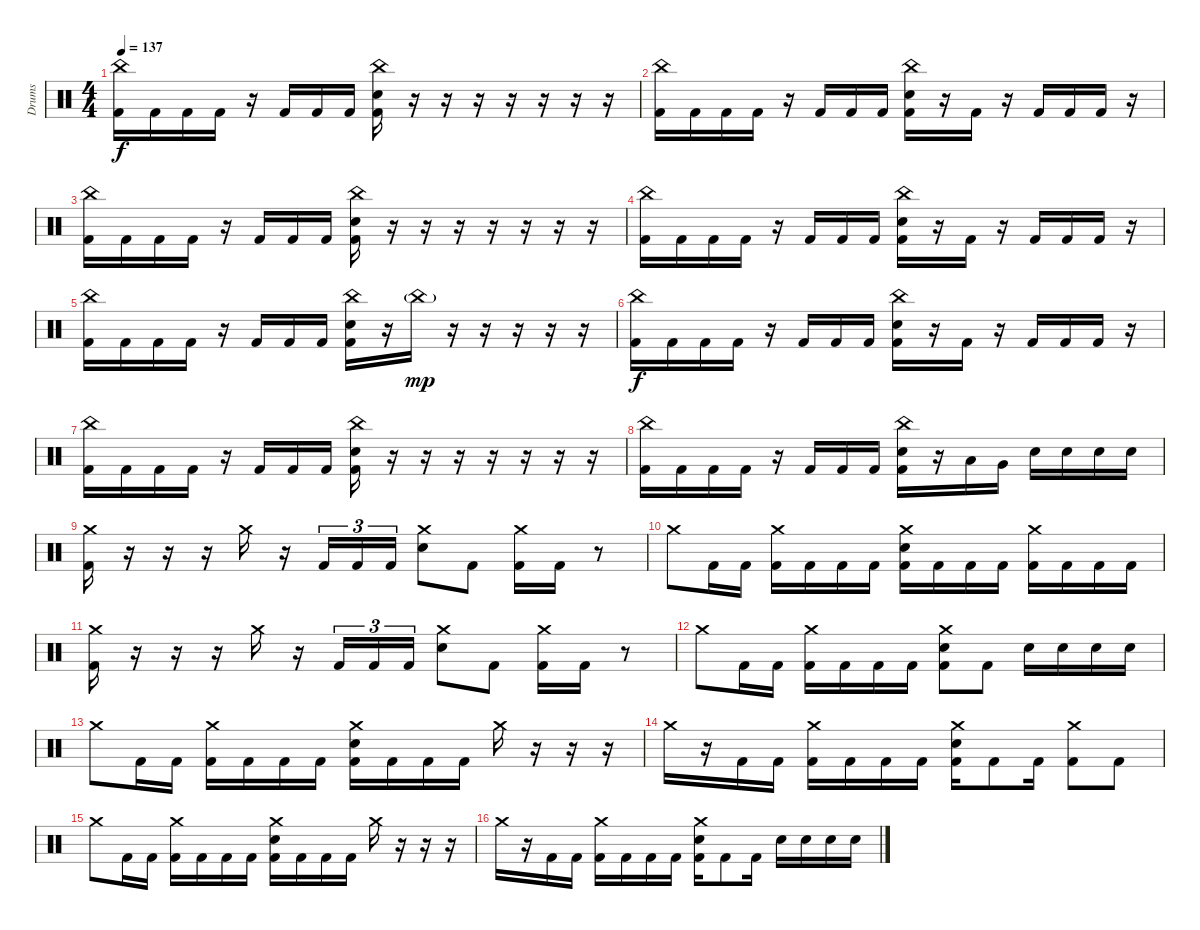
\track ("Drums" "Drums") {instrument percussion}
\staff {score}
\articulation defaults
\ts (4 4)
\tempo 137
\clef neutral
\ks c
("China (hit)" "Kick (hit) 2").16{dy f} "Kick (hit) 2".16 "Kick (hit) 2".16 "Kick (hit) 2".16 r.16 "Kick (hit) 2".16 "Kick (hit) 2".16 "Kick (hit) 2".16 ("China (hit)" "Electric Snare (hit)" "Kick (hit) 2").16 r.16 r.16 r.16 r.16 r.16 r.16 r.16 |
("China (hit)" "Kick (hit) 2").16 "Kick (hit) 2".16 "Kick (hit) 2".16 "Kick (hit) 2".16 r.16 "Kick (hit) 2".16 "Kick (hit) 2".16 "Kick (hit) 2".16 ("China (hit)" "Electric Snare (hit)" "Kick (hit) 2").16 r.16 "Kick (hit) 2".16 r.16 "Kick (hit) 2".16 "Kick (hit) 2".16 "Kick (hit) 2".16 r.16 |
("China (hit)" "Kick (hit) 2").16 "Kick (hit) 2".16 "Kick (hit) 2".16 "Kick (hit) 2".16 r.16 "Kick (hit) 2".16 "Kick (hit) 2".16 "Kick (hit) 2".16 ("China (hit)" "Electric Snare (hit)" "Kick (hit) 2").16 r.16 r.16 r.16 r.16 r.16 r.16 r.16 |
("China (hit)" "Kick (hit) 2").16 "Kick (hit) 2".16 "Kick (hit) 2".16 "Kick (hit) 2".16 r.16 "Kick (hit) 2".16 "Kick (hit) 2".16 "Kick (hit) 2".16 ("China (hit)" "Electric Snare (hit)" "Kick (hit) 2").16 r.16 "Kick (hit) 2".16 r.16 "Kick (hit) 2".16 "Kick (hit) 2".16 "Kick (hit) 2".16 r.16 |
("China (hit)" "Kick (hit) 2").16 "Kick (hit) 2".16 "Kick (hit) 2".16 "Kick (hit) 2".16 r.16 "Kick (hit) 2".16 "Kick (hit) 2".16 "Kick (hit) 2".16 ("China (hit)" "Electric Snare (hit)" "Kick (hit) 2").16 r.16 "China (hit)"{g}.16{dy mp} r.16 r.16 r.16 r.16 r.16 |
("China (hit)" "Kick (hit) 2").16{dy f} "Kick (hit) 2".16 "Kick (hit) 2".16 "Kick (hit) 2".16 r.16 "Kick (hit) 2".16 "Kick (hit) 2".16 "Kick (hit) 2".16 ("China (hit)" "Electric Snare (hit)" "Kick (hit) 2").16 r.16 "Kick (hit) 2".16 r.16 "Kick (hit) 2".16 "Kick (hit) 2".16 "Kick (hit) 2".16 r.16 |
("China (hit)" "Kick (hit) 2").16 "Kick (hit) 2".16 "Kick (hit) 2".16 "Kick (hit) 2".16 r.16 "Kick (hit) 2".16 "Kick (hit) 2".16 "Kick (hit) 2".16 ("China (hit)" "Electric Snare (hit)" "Kick (hit) 2").16 r.16 r.16 r.16 r.16 r.16 r.16 r.16 |
("China (hit)" "Kick (hit) 2").16 "Kick (hit) 2".16 "Kick (hit) 2".16 "Kick (hit) 2".16 r.16 "Kick (hit) 2".16 "Kick (hit) 2".16 "Kick (hit) 2".16 ("China (hit)" "Electric Snare (hit)" "Kick (hit) 2").16 r.16 "Low Tom (hit)".16 "Very Low Tom (hit)".16 "Electric Snare (hit)".16 "Electric Snare (hit)".16 "Electric Snare (hit)".16 "Electric Snare (hit)".16 |
("Crash medium (hit)" "Kick (hit) 2").16 r.16 r.16 r.16 "Crash medium (hit)".16 r.16 "Kick (hit) 2".16{tu (3 2)} "Kick (hit) 2".16{tu (3 2)} "Kick (hit) 2".16{tu (3 2)} ("Crash medium (hit)" "Electric Snare (hit)").8 "Kick (hit) 2".8 ("Crash medium (hit)" "Kick (hit) 2").16 "Kick (hit) 2".16 r.8 |
"Crash medium (hit)".8 "Kick (hit) 2".16 "Kick (hit) 2".16 ("Crash medium (hit)" "Kick (hit) 2").16 "Kick (hit) 2".16 "Kick (hit) 2".16 "Kick (hit) 2".16 ("Crash medium (hit)" "Electric Snare (hit)" "Kick (hit) 2").16 "Kick (hit) 2".16 "Kick (hit) 2".16 "Kick (hit) 2".16 ("Crash medium (hit)" "Kick (hit) 2").16 "Kick (hit) 2".16 "Kick (hit) 2".16 "Kick (hit) 2".16 |
("Crash medium (hit)" "Kick (hit) 2").16 r.16 r.16 r.16 "Crash medium (hit)".16 r.16 "Kick (hit) 2".16{tu (3 2)} "Kick (hit) 2".16{tu (3 2)} "Kick (hit) 2".16{tu (3 2)} ("Crash medium (hit)" "Electric Snare (hit)").8 "Kick (hit) 2".8 ("Crash medium (hit)" "Kick (hit) 2").16 "Kick (hit) 2".16 r.8 |
"Crash medium (hit)".8 "Kick (hit) 2".16 "Kick (hit) 2".16 ("Crash medium (hit)" "Kick (hit) 2").16 "Kick (hit) 2".16 "Kick (hit) 2".16 "Kick (hit) 2".16 ("Crash medium (hit)" "Electric Snare (hit)" "Kick (hit) 2").8 "Kick (hit) 2".8 "Electric Snare (hit)".16 "Electric Snare (hit)".16 "Electric Snare (hit)".16 "Electric Snare (hit)".16 |
"Crash medium (hit)".8 "Kick (hit) 2".16 "Kick (hit) 2".16 ("Crash medium (hit)" "Kick (hit) 2").16 "Kick (hit) 2".16 "Kick (hit) 2".16 "Kick (hit) 2".16 ("Crash medium (hit)" "Electric Snare (hit)" "Kick (hit) 2").16 "Kick (hit) 2".16 "Kick (hit) 2".16 "Kick (hit) 2".16 "Crash medium (hit)".16 r.16 r.16 r.16 |
"Crash medium (hit)".16 r.16 "Kick (hit) 2".16 "Kick (hit) 2".16 ("Crash medium (hit)" "Kick (hit) 2").16 "Kick (hit) 2".16 "Kick (hit) 2".16 "Kick (hit) 2".16 ("Crash medium (hit)" "Electric Snare (hit)" "Kick (hit) 2").16 "Kick (hit) 2".8 "Kick (hit) 2".16 ("Crash medium (hit)" "Kick (hit) 2").8 "Kick (hit) 2".8 |
"Crash medium (hit)".8 "Kick (hit) 2".16 "Kick (hit) 2".16 ("Crash medium (hit)" "Kick (hit) 2").16 "Kick (hit) 2".16 "Kick (hit) 2".16 "Kick (hit) 2".16 ("Crash medium (hit)" "Electric Snare (hit)" "Kick (hit) 2").16 "Kick (hit) 2".16 "Kick (hit) 2".16 "Kick (hit) 2".16 "Crash medium (hit)".16 r.16 r.16 r.16 |
"Crash medium (hit)".16 r.16 "Kick (hit) 2".16 "Kick (hit) 2".16 ("Crash medium (hit)" "Kick (hit) 2").16 "Kick (hit) 2".16 "Kick (hit) 2".16 "Kick (hit) 2".16 ("Crash medium (hit)" "Electric Snare (hit)" "Kick (hit) 2").16 "Kick (hit) 2".8 "Kick (hit) 2".16 "Electric Snare (hit)".16 "Electric Snare (hit)".16 "Electric Snare (hit)".16 "Electric Snare (hit)".16
